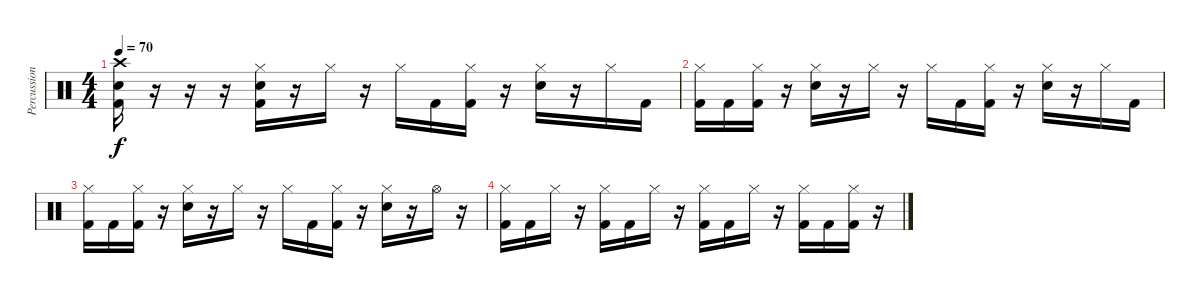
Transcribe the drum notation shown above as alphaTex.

\track ("Percussion" "Percussion") {instrument percussion}
\staff {score}
\articulation defaults
\ts (4 4)
\tempo 70
\clef neutral
\ks c
("Crash high (hit)" "Snare (hit) 2" "Kick (hit) 2").16{dy f} r.16 r.16 r.16 ("Hi-Hat (closed)" "Snare (hit) 2" "Kick (hit) 2").16 r.16 "Hi-Hat (closed)".16 r.16 "Hi-Hat (closed)".16 "Kick (hit) 2".16 ("Hi-Hat (closed)" "Kick (hit) 2").16 r.16 ("Hi-Hat (closed)" "Snare (hit) 2").16 r.16 "Hi-Hat (closed)".16 "Kick (hit) 2".16 |
("Hi-Hat (closed)" "Kick (hit) 2").16 "Kick (hit) 2".16 ("Hi-Hat (closed)" "Kick (hit) 2").16 r.16 ("Hi-Hat (closed)" "Snare (hit) 2").16 r.16 "Hi-Hat (closed)".16 r.16 "Hi-Hat (closed)".16 "Kick (hit) 2".16 ("Hi-Hat (closed)" "Kick (hit) 2").16 r.16 ("Hi-Hat (closed)" "Snare (hit) 2").16 r.16 "Hi-Hat (closed)".16 "Kick (hit) 2".16 |
("Hi-Hat (closed)" "Kick (hit) 2").16 "Kick (hit) 2".16 ("Hi-Hat (closed)" "Kick (hit) 2").16 r.16 ("Hi-Hat (closed)" "Snare (hit) 2").16 r.16 "Hi-Hat (closed)".16 r.16 "Hi-Hat (closed)".16 "Kick (hit) 2".16 ("Hi-Hat (closed)" "Kick (hit) 2").16 r.16 ("Hi-Hat (closed)" "Snare (hit) 2").16 r.16 "Hi-Hat (open)".16 r.16 |
("Hi-Hat (closed)" "Kick (hit) 2").16 "Kick (hit) 2".16 "Hi-Hat (closed)".16 r.16 ("Hi-Hat (closed)" "Kick (hit) 2").16 "Kick (hit) 2".16 "Hi-Hat (closed)".16 r.16 ("Hi-Hat (closed)" "Kick (hit) 2").16 "Kick (hit) 2".16 "Hi-Hat (closed)".16 r.16 ("Hi-Hat (closed)" "Kick (hit) 2").16 "Kick (hit) 2".16 ("Hi-Hat (closed)" "Kick (hit) 2").16 r.16
